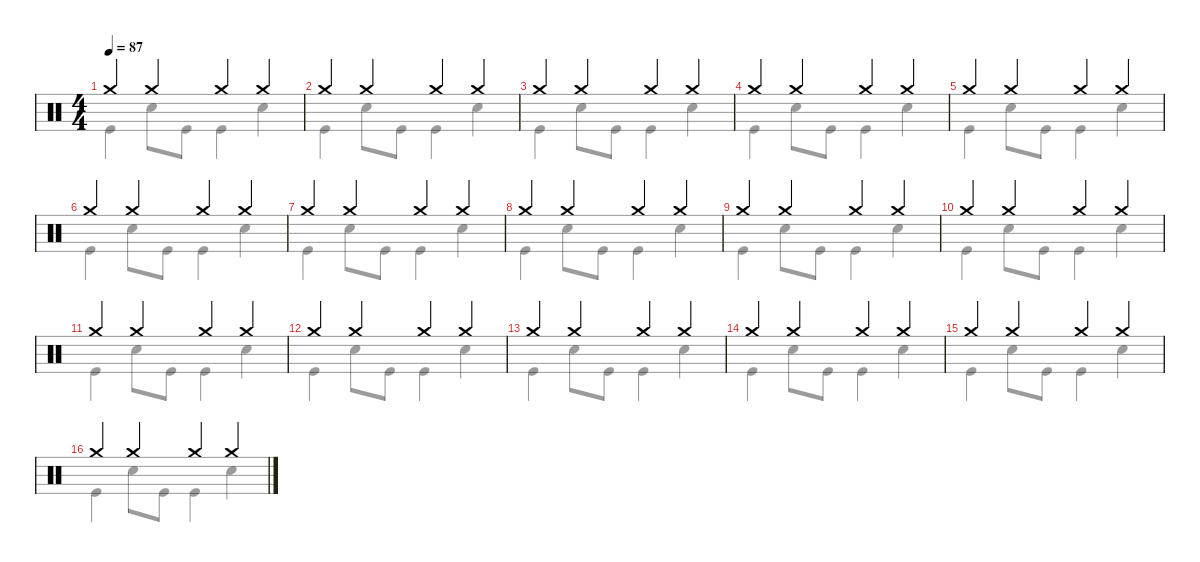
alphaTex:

\defaultSystemsLayout 4
\hideDynamics
\bracketExtendMode nobrackets
\singleTrackTrackNamePolicy hidden
\multiTrackTrackNamePolicy hidden
\firstSystemTrackNameMode fullname
\otherSystemsTrackNameOrientation horizontal
\track ("Drums" "drm.") {instrument percussion}
\staff {score}
\articulation defaults
\voice
\ts (4 4)
\tempo 87
\clef neutral
\ks c "Crash medium (hit)".4{dy f beam Up} "Crash medium (hit)".4{beam Up} "Crash medium (hit)".4{beam Up} "Crash medium (hit)".4{beam Up}
|
"Crash medium (hit)".4{beam Up} "Crash medium (hit)".4{beam Up} "Crash medium (hit)".4{beam Up} "Crash medium (hit)".4{beam Up} |
"Crash medium (hit)".4{beam Up} "Crash medium (hit)".4{beam Up} "Crash medium (hit)".4{beam Up} "Crash medium (hit)".4{beam Up} |
"Crash medium (hit)".4{beam Up} "Crash medium (hit)".4{beam Up} "Crash medium (hit)".4{beam Up} "Crash medium (hit)".4{beam Up} |
"Crash medium (hit)".4{beam Up} "Crash medium (hit)".4{beam Up} "Crash medium (hit)".4{beam Up} "Crash medium (hit)".4{beam Up} |
"Crash medium (hit)".4{beam Up} "Crash medium (hit)".4{beam Up} "Crash medium (hit)".4{beam Up} "Crash medium (hit)".4{beam Up} |
"Crash medium (hit)".4{beam Up} "Crash medium (hit)".4{beam Up} "Crash medium (hit)".4{beam Up} "Crash medium (hit)".4{beam Up} |
"Crash medium (hit)".4{beam Up} "Crash medium (hit)".4{beam Up} "Crash medium (hit)".4{beam Up} "Crash medium (hit)".4{beam Up} |
"Crash medium (hit)".4{beam Up} "Crash medium (hit)".4{beam Up} "Crash medium (hit)".4{beam Up} "Crash medium (hit)".4{beam Up} |
"Crash medium (hit)".4{beam Up} "Crash medium (hit)".4{beam Up} "Crash medium (hit)".4{beam Up} "Crash medium (hit)".4{beam Up} |
"Crash medium (hit)".4{beam Up} "Crash medium (hit)".4{beam Up} "Crash medium (hit)".4{beam Up} "Crash medium (hit)".4{beam Up} |
"Crash medium (hit)".4{beam Up} "Crash medium (hit)".4{beam Up} "Crash medium (hit)".4{beam Up} "Crash medium (hit)".4{beam Up} |
"Crash medium (hit)".4{beam Up} "Crash medium (hit)".4{beam Up} "Crash medium (hit)".4{beam Up} "Crash medium (hit)".4{beam Up} |
"Crash medium (hit)".4{beam Up} "Crash medium (hit)".4{beam Up} "Crash medium (hit)".4{beam Up} "Crash medium (hit)".4{beam Up} |
"Crash medium (hit)".4{beam Up} "Crash medium (hit)".4{beam Up} "Crash medium (hit)".4{beam Up} "Crash medium (hit)".4{beam Up} |
"Crash medium (hit)".4{beam Up} "Crash medium (hit)".4{beam Up} "Crash medium (hit)".4{beam Up} "Crash medium (hit)".4{beam Up}
\voice
\clef neutral
\ottava regular
\simile none
\ks c "Kick (hit)".4{dy f beam Down} "Snare (hit) 2".8{beam Down} "Kick (hit)".8{beam Down} "Kick (hit)".4{beam Down} "Snare (hit) 2".4{beam Down}
|
"Kick (hit)".4{beam Down} "Snare (hit) 2".8{beam Down} "Kick (hit)".8{beam Down} "Kick (hit)".4{beam Down} "Snare (hit) 2".4{beam Down} |
"Kick (hit)".4{beam Down} "Snare (hit) 2".8{beam Down} "Kick (hit)".8{beam Down} "Kick (hit)".4{beam Down} "Snare (hit) 2".4{beam Down} |
"Kick (hit)".4{beam Down} "Snare (hit) 2".8{beam Down} "Kick (hit)".8{beam Down} "Kick (hit)".4{beam Down} "Snare (hit) 2".4{beam Down} |
"Kick (hit)".4{beam Down} "Snare (hit) 2".8{beam Down} "Kick (hit)".8{beam Down} "Kick (hit)".4{beam Down} "Snare (hit) 2".4{beam Down} |
"Kick (hit)".4{beam Down} "Snare (hit) 2".8{beam Down} "Kick (hit)".8{beam Down} "Kick (hit)".4{beam Down} "Snare (hit) 2".4{beam Down} |
"Kick (hit)".4{beam Down} "Snare (hit) 2".8{beam Down} "Kick (hit)".8{beam Down} "Kick (hit)".4{beam Down} "Snare (hit) 2".4{beam Down} |
"Kick (hit)".4{beam Down} "Snare (hit) 2".8{beam Down} "Kick (hit)".8{beam Down} "Kick (hit)".4{beam Down} "Snare (hit) 2".4{beam Down} |
"Kick (hit)".4{beam Down} "Snare (hit) 2".8{beam Down} "Kick (hit)".8{beam Down} "Kick (hit)".4{beam Down} "Snare (hit) 2".4{beam Down} |
"Kick (hit)".4{beam Down} "Snare (hit) 2".8{beam Down} "Kick (hit)".8{beam Down} "Kick (hit)".4{beam Down} "Snare (hit) 2".4{beam Down} |
"Kick (hit)".4{beam Down} "Snare (hit) 2".8{beam Down} "Kick (hit)".8{beam Down} "Kick (hit)".4{beam Down} "Snare (hit) 2".4{beam Down} |
"Kick (hit)".4{beam Down} "Snare (hit) 2".8{beam Down} "Kick (hit)".8{beam Down} "Kick (hit)".4{beam Down} "Snare (hit) 2".4{beam Down} |
"Kick (hit)".4{beam Down} "Snare (hit) 2".8{beam Down} "Kick (hit)".8{beam Down} "Kick (hit)".4{beam Down} "Snare (hit) 2".4{beam Down} |
"Kick (hit)".4{beam Down} "Snare (hit) 2".8{beam Down} "Kick (hit)".8{beam Down} "Kick (hit)".4{beam Down} "Snare (hit) 2".4{beam Down} |
"Kick (hit)".4{beam Down} "Snare (hit) 2".8{beam Down} "Kick (hit)".8{beam Down} "Kick (hit)".4{beam Down} "Snare (hit) 2".4{beam Down} |
"Kick (hit)".4{beam Down} "Snare (hit) 2".8{beam Down} "Kick (hit)".8{beam Down} "Kick (hit)".4{beam Down} "Snare (hit) 2".4{beam Down}
